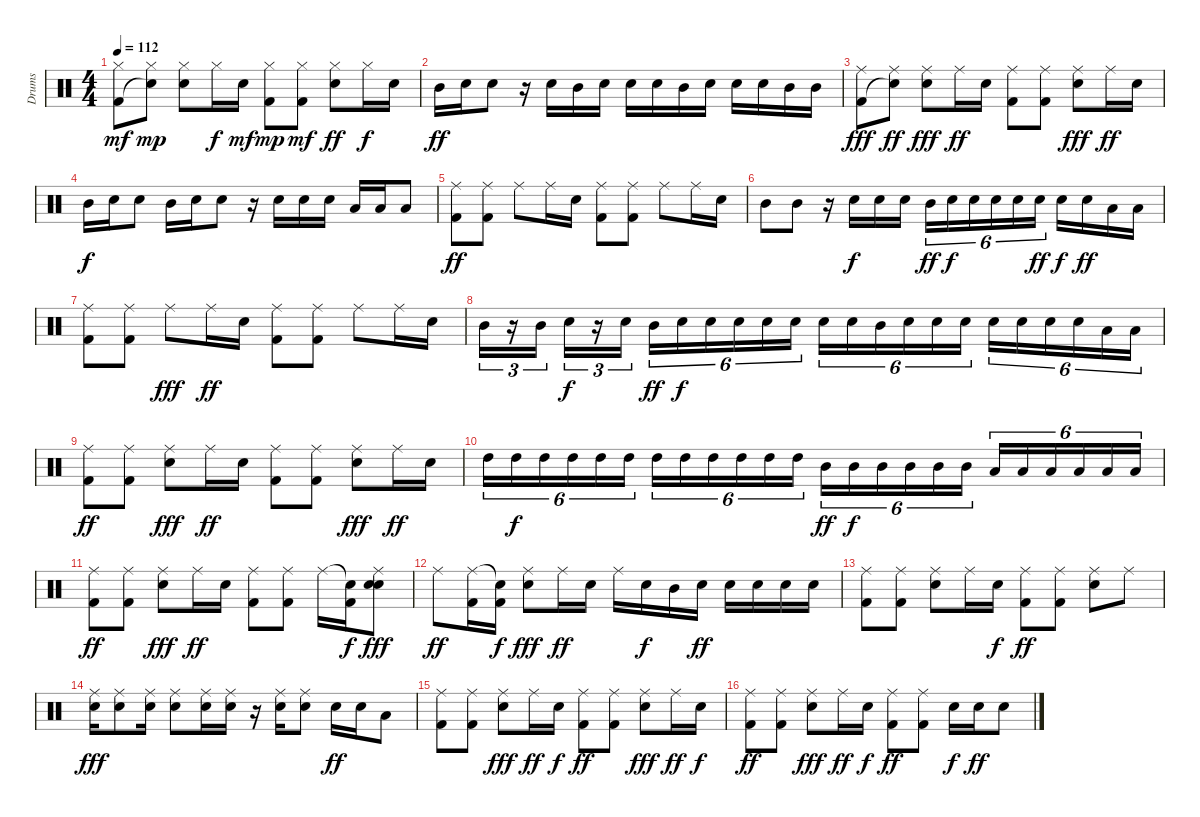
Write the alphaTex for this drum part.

\track ("Drums" "Drums") {instrument percussion}
\staff {score}
\articulation defaults
\ts (4 4)
\tempo 112
\clef neutral
\ks c
("Hi-Hat (closed)" "Kick (hit) 2").8{dy mf} ("Hi-Hat (closed)" "Snare (hit)"{t}).8{dy mp} ("Hi-Hat (closed)" "Electric Snare (hit)").8 "Hi-Hat (closed)".16{dy f} "Electric Snare (hit)".16{dy mf} ("Hi-Hat (closed)" "Kick (hit) 2").8{dy mp} ("Hi-Hat (closed)" "Kick (hit) 2").8{dy mf} ("Hi-Hat (closed)" "Electric Snare (hit)").8{dy ff} "Hi-Hat (closed)".16{dy f} "Electric Snare (hit)".16 |
"Mid Tom (hit)".16{dy ff} "Electric Snare (hit)".16 "Electric Snare (hit)".8 r.16 "Electric Snare (hit)".16 "Mid Tom (hit)".16 "Electric Snare (hit)".16 "Electric Snare (hit)".16 "Electric Snare (hit)".16 "Mid Tom (hit)".16 "Electric Snare (hit)".16 "Electric Snare (hit)".16 "Electric Snare (hit)".16 "Mid Tom (hit)".16 "Mid Tom (hit)".16 |
("Ride (middle)" "Kick (hit) 2").8{dy fff} ("Ride (middle)" "Snare (hit)"{t}).8{dy ff} ("Ride (middle)" "Electric Snare (hit)").8{dy fff} "Ride (middle)".16{dy ff} "Electric Snare (hit)".16 ("Ride (middle)" "Kick (hit) 2").8 ("Ride (middle)" "Kick (hit) 2").8 ("Ride (middle)" "Electric Snare (hit)").8{dy fff} "Ride (middle)".16{dy ff} "Electric Snare (hit)".16 |
"Mid Tom (hit)".16{dy f} "Electric Snare (hit)".16 "Electric Snare (hit)".8 "Mid Tom (hit)".16 "Electric Snare (hit)".16 "Electric Snare (hit)".8 r.16 "Electric Snare (hit)".16 "Electric Snare (hit)".16 "Electric Snare (hit)".16 "Low Tom (hit)".16 "Low Tom (hit)".16 "Low Tom (hit)".8 |
("Ride (middle)" "Kick (hit) 2").8{dy ff} ("Ride (middle)" "Kick (hit) 2").8 "Ride (middle)".8 "Ride (middle)".16 "Electric Snare (hit)".16 ("Ride (middle)" "Kick (hit) 2").8 ("Ride (middle)" "Kick (hit) 2").8 "Ride (middle)".8 "Ride (middle)".16 "Electric Snare (hit)".16 |
"Mid Tom (hit)".8 "Mid Tom (hit)".8 r.16 "Electric Snare (hit)".16{dy f} "Electric Snare (hit)".16 "Electric Snare (hit)".16 "Mid Tom (hit)".16{tu (6 4) dy ff} "Electric Snare (hit)".16{tu (6 4) dy f} "Electric Snare (hit)".16{tu (6 4)} "Electric Snare (hit)".16{tu (6 4)} "Electric Snare (hit)".16{tu (6 4)} "Electric Snare (hit)".16{tu (6 4) dy ff} "Electric Snare (hit)".16{dy f} "Electric Snare (hit)".16{dy ff} "Low Tom (hit)".16 "Low Tom (hit)".16 |
("Ride (middle)" "Kick (hit) 2").8 ("Ride (middle)" "Kick (hit) 2").8 "Ride (middle)".8{dy fff} "Ride (middle)".16{dy ff} "Electric Snare (hit)".16 ("Ride (middle)" "Kick (hit) 2").8 ("Ride (middle)" "Kick (hit) 2").8 "Ride (middle)".8 "Ride (middle)".16 "Electric Snare (hit)".16 |
"Mid Tom (hit)".16{tu (3 2)} r.16{tu (3 2)} "Mid Tom (hit)".16{tu (3 2)} "Electric Snare (hit)".16{tu (3 2) dy f} r.16{tu (3 2)} "Electric Snare (hit)".16{tu (3 2)} "Mid Tom (hit)".16{tu (6 4) dy ff} "Electric Snare (hit)".16{tu (6 4) dy f} "Electric Snare (hit)".16{tu (6 4)} "Electric Snare (hit)".16{tu (6 4)} "Electric Snare (hit)".16{tu (6 4)} "Electric Snare (hit)".16{tu (6 4)} "Electric Snare (hit)".16{tu (6 4)} "Electric Snare (hit)".16{tu (6 4)} "Mid Tom (hit)".16{tu (6 4)} "Electric Snare (hit)".16{tu (6 4)} "Electric Snare (hit)".16{tu (6 4)} "Electric Snare (hit)".16{tu (6 4)} "Electric Snare (hit)".16{tu (6 4)} "Electric Snare (hit)".16{tu (6 4)} "Electric Snare (hit)".16{tu (6 4)} "Electric Snare (hit)".16{tu (6 4)} "Low Tom (hit)".16{tu (6 4)} "Low Tom (hit)".16{tu (6 4)} |
("Ride (middle)" "Kick (hit) 2").8{dy ff} ("Ride (middle)" "Kick (hit) 2").8 ("Ride (middle)" "Electric Snare (hit)").8{dy fff} "Ride (middle)".16{dy ff} "Electric Snare (hit)".16 ("Ride (middle)" "Kick (hit) 2").8 ("Ride (middle)" "Kick (hit) 2").8 ("Ride (middle)" "Electric Snare (hit)").8{dy fff} "Ride (middle)".16{dy ff} "Electric Snare (hit)".16 |
"High Tom (hit)".16{tu (6 4)} "High Tom (hit)".16{tu (6 4) dy f} "High Tom (hit)".16{tu (6 4)} "High Tom (hit)".16{tu (6 4)} "High Tom (hit)".16{tu (6 4)} "High Tom (hit)".16{tu (6 4)} "High Tom (hit)".16{tu (6 4)} "High Tom (hit)".16{tu (6 4)} "High Tom (hit)".16{tu (6 4)} "High Tom (hit)".16{tu (6 4)} "High Tom (hit)".16{tu (6 4)} "High Tom (hit)".16{tu (6 4)} "Mid Tom (hit)".16{tu (6 4) dy ff} "Mid Tom (hit)".16{tu (6 4) dy f} "Mid Tom (hit)".16{tu (6 4)} "Mid Tom (hit)".16{tu (6 4)} "Mid Tom (hit)".16{tu (6 4)} "Mid Tom (hit)".16{tu (6 4)} "Low Tom (hit)".16{tu (6 4)} "Low Tom (hit)".16{tu (6 4)} "Low Tom (hit)".16{tu (6 4)} "Low Tom (hit)".16{tu (6 4)} "Low Tom (hit)".16{tu (6 4)} "Low Tom (hit)".16{tu (6 4)} |
("Ride (middle)" "Kick (hit) 2").8{dy ff} ("Ride (middle)" "Kick (hit) 2").8 ("Ride (middle)" "Electric Snare (hit)").8{dy fff} "Ride (middle)".16{dy ff} "Electric Snare (hit)".16 ("Ride (middle)" "Kick (hit) 2").8 ("Ride (middle)" "Kick (hit) 2").8 "Ride (middle)".16 ("Snare (hit)"{t} "Kick (hit) 2").16{dy f} ("Ride (middle)" "Electric Snare (hit)" "Snare (hit)").8{dy fff} |
"Ride (middle)".8{dy ff} ("Ride (middle)" "Kick (hit) 2").16 ("Snare (hit)"{t} "Kick (hit) 2").16{dy f} ("Ride (middle)" "Electric Snare (hit)").8{dy fff} "Ride (middle)".16{dy ff} "Electric Snare (hit)".16 "Ride (middle)".16 "Electric Snare (hit)".16{dy f} "Mid Tom (hit)".16 "Electric Snare (hit)".16{dy ff} "Electric Snare (hit)".16 "Electric Snare (hit)".16 "Electric Snare (hit)".16 "Electric Snare (hit)".16 |
("Ride (middle)" "Kick (hit) 2").8 ("Ride (middle)" "Kick (hit) 2").8 ("Ride (middle)" "Electric Snare (hit)").8 "Ride (middle)".16 "Electric Snare (hit)".16{dy f} ("Ride (middle)" "Kick (hit) 2").8{dy ff} ("Ride (middle)" "Kick (hit) 2").8 ("Ride (middle)" "Electric Snare (hit)").8 "Ride (middle)".8 |
("Ride (middle)" "Electric Snare (hit)").16{dy fff} ("Ride (middle)" "Electric Snare (hit)").8 ("Ride (middle)" "Electric Snare (hit)").16 ("Ride (middle)" "Electric Snare (hit)").8 ("Ride (middle)" "Electric Snare (hit)").16 ("Ride (middle)" "Electric Snare (hit)").16 r.16 ("Ride (middle)" "Electric Snare (hit)").16 ("Ride (middle)" "Electric Snare (hit)").8 "Electric Snare (hit)".16{dy ff} "Electric Snare (hit)".16 "Low Tom (hit)".8 |
("Ride (middle)" "Kick (hit) 2").8 ("Ride (middle)" "Kick (hit) 2").8 ("Ride (middle)" "Electric Snare (hit)").8{dy fff} "Ride (middle)".16{dy ff} "Electric Snare (hit)".16{dy f} ("Ride (middle)" "Kick (hit) 2").8{dy ff} ("Ride (middle)" "Kick (hit) 2").8 ("Ride (middle)" "Electric Snare (hit)").8{dy fff} "Ride (middle)".16{dy ff} "Electric Snare (hit)".16{dy f} |
("Ride (middle)" "Kick (hit) 2").8{dy ff} ("Ride (middle)" "Kick (hit) 2").8 ("Ride (middle)" "Electric Snare (hit)").8{dy fff} "Ride (middle)".16{dy ff} "Electric Snare (hit)".16{dy f} ("Ride (middle)" "Kick (hit) 2").8{dy ff} ("Ride (middle)" "Kick (hit) 2").8 "Electric Snare (hit)".16{dy f} "Electric Snare (hit)".16{dy ff} "Electric Snare (hit)".8
